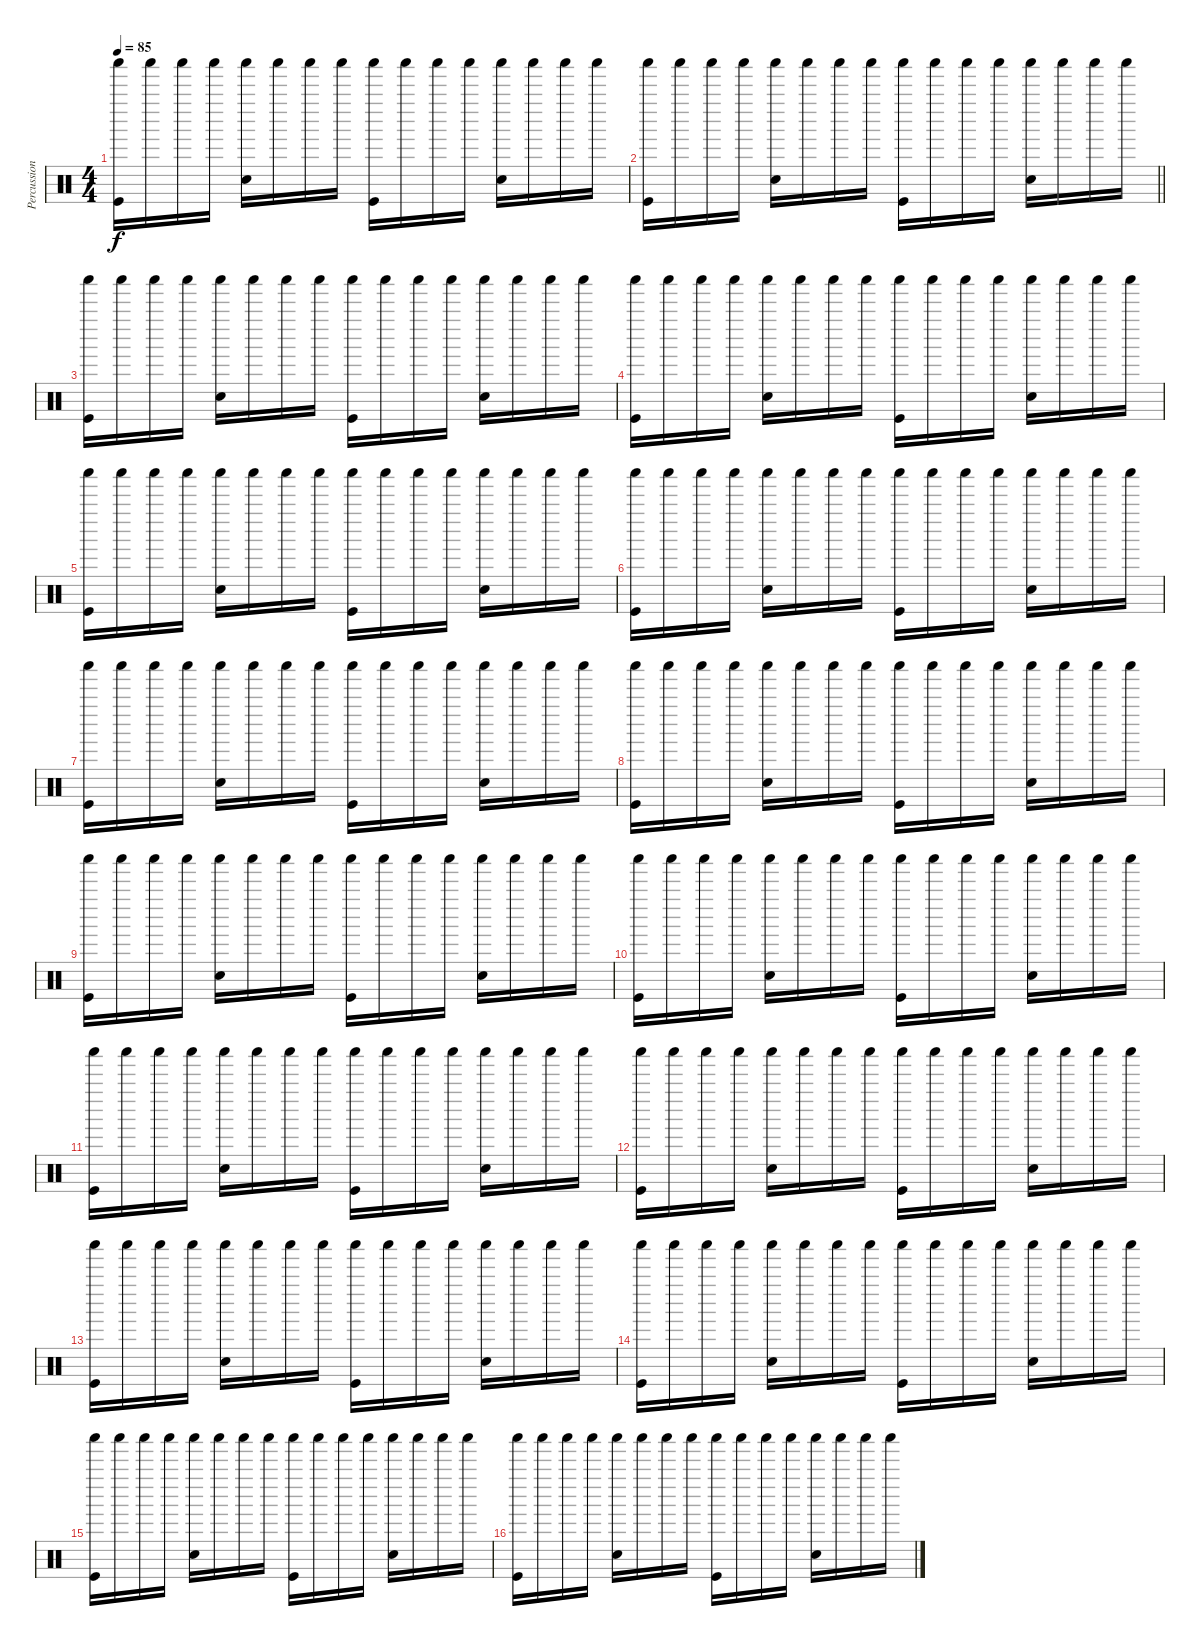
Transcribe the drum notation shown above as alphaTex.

\track ("Percussion" "Percussion") {instrument percussion}
\staff {score}
\articulation defaults
\ts (4 4)
\tempo 85
\clef neutral
\ks c
("Shaker (hit)" "Kick (hit)").16{dy f} "Shaker (hit)".16 "Shaker (hit)".16 "Shaker (hit)".16 ("Shaker (hit)" "Snare (hit) 2").16 "Shaker (hit)".16 "Shaker (hit)".16 "Shaker (hit)".16 ("Shaker (hit)" "Kick (hit)").16 "Shaker (hit)".16 "Shaker (hit)".16 "Shaker (hit)".16 ("Shaker (hit)" "Snare (hit) 2").16 "Shaker (hit)".16 "Shaker (hit)".16 "Shaker (hit)".16 |
\barLineRight lightlight
("Shaker (hit)" "Kick (hit)").16 "Shaker (hit)".16 "Shaker (hit)".16 "Shaker (hit)".16 ("Shaker (hit)" "Snare (hit) 2").16 "Shaker (hit)".16 "Shaker (hit)".16 "Shaker (hit)".16 ("Shaker (hit)" "Kick (hit)").16 "Shaker (hit)".16 "Shaker (hit)".16 "Shaker (hit)".16 ("Shaker (hit)" "Snare (hit) 2").16 "Shaker (hit)".16 "Shaker (hit)".16 "Shaker (hit)".16 |
("Shaker (hit)" "Kick (hit)").16 "Shaker (hit)".16 "Shaker (hit)".16 "Shaker (hit)".16 ("Shaker (hit)" "Snare (hit) 2").16 "Shaker (hit)".16 "Shaker (hit)".16 "Shaker (hit)".16 ("Shaker (hit)" "Kick (hit)").16 "Shaker (hit)".16 "Shaker (hit)".16 "Shaker (hit)".16 ("Shaker (hit)" "Snare (hit) 2").16 "Shaker (hit)".16 "Shaker (hit)".16 "Shaker (hit)".16 |
("Shaker (hit)" "Kick (hit)").16 "Shaker (hit)".16 "Shaker (hit)".16 "Shaker (hit)".16 ("Shaker (hit)" "Snare (hit) 2").16 "Shaker (hit)".16 "Shaker (hit)".16 "Shaker (hit)".16 ("Shaker (hit)" "Kick (hit)").16 "Shaker (hit)".16 "Shaker (hit)".16 "Shaker (hit)".16 ("Shaker (hit)" "Snare (hit) 2").16 "Shaker (hit)".16 "Shaker (hit)".16 "Shaker (hit)".16 |
("Shaker (hit)" "Kick (hit)").16 "Shaker (hit)".16 "Shaker (hit)".16 "Shaker (hit)".16 ("Shaker (hit)" "Snare (hit) 2").16 "Shaker (hit)".16 "Shaker (hit)".16 "Shaker (hit)".16 ("Shaker (hit)" "Kick (hit)").16 "Shaker (hit)".16 "Shaker (hit)".16 "Shaker (hit)".16 ("Shaker (hit)" "Snare (hit) 2").16 "Shaker (hit)".16 "Shaker (hit)".16 "Shaker (hit)".16 |
("Shaker (hit)" "Kick (hit)").16 "Shaker (hit)".16 "Shaker (hit)".16 "Shaker (hit)".16 ("Shaker (hit)" "Snare (hit) 2").16 "Shaker (hit)".16 "Shaker (hit)".16 "Shaker (hit)".16 ("Shaker (hit)" "Kick (hit)").16 "Shaker (hit)".16 "Shaker (hit)".16 "Shaker (hit)".16 ("Shaker (hit)" "Snare (hit) 2").16 "Shaker (hit)".16 "Shaker (hit)".16 "Shaker (hit)".16 |
("Shaker (hit)" "Kick (hit)").16 "Shaker (hit)".16 "Shaker (hit)".16 "Shaker (hit)".16 ("Shaker (hit)" "Snare (hit) 2").16 "Shaker (hit)".16 "Shaker (hit)".16 "Shaker (hit)".16 ("Shaker (hit)" "Kick (hit)").16 "Shaker (hit)".16 "Shaker (hit)".16 "Shaker (hit)".16 ("Shaker (hit)" "Snare (hit) 2").16 "Shaker (hit)".16 "Shaker (hit)".16 "Shaker (hit)".16 |
("Shaker (hit)" "Kick (hit)").16 "Shaker (hit)".16 "Shaker (hit)".16 "Shaker (hit)".16 ("Shaker (hit)" "Snare (hit) 2").16 "Shaker (hit)".16 "Shaker (hit)".16 "Shaker (hit)".16 ("Shaker (hit)" "Kick (hit)").16 "Shaker (hit)".16 "Shaker (hit)".16 "Shaker (hit)".16 ("Shaker (hit)" "Snare (hit) 2").16 "Shaker (hit)".16 "Shaker (hit)".16 "Shaker (hit)".16 |
("Shaker (hit)" "Kick (hit)").16 "Shaker (hit)".16 "Shaker (hit)".16 "Shaker (hit)".16 ("Shaker (hit)" "Snare (hit) 2").16 "Shaker (hit)".16 "Shaker (hit)".16 "Shaker (hit)".16 ("Shaker (hit)" "Kick (hit)").16 "Shaker (hit)".16 "Shaker (hit)".16 "Shaker (hit)".16 ("Shaker (hit)" "Snare (hit) 2").16 "Shaker (hit)".16 "Shaker (hit)".16 "Shaker (hit)".16 |
("Shaker (hit)" "Kick (hit)").16 "Shaker (hit)".16 "Shaker (hit)".16 "Shaker (hit)".16 ("Shaker (hit)" "Snare (hit) 2").16 "Shaker (hit)".16 "Shaker (hit)".16 "Shaker (hit)".16 ("Shaker (hit)" "Kick (hit)").16 "Shaker (hit)".16 "Shaker (hit)".16 "Shaker (hit)".16 ("Shaker (hit)" "Snare (hit) 2").16 "Shaker (hit)".16 "Shaker (hit)".16 "Shaker (hit)".16 |
("Shaker (hit)" "Kick (hit)").16 "Shaker (hit)".16 "Shaker (hit)".16 "Shaker (hit)".16 ("Shaker (hit)" "Snare (hit) 2").16 "Shaker (hit)".16 "Shaker (hit)".16 "Shaker (hit)".16 ("Shaker (hit)" "Kick (hit)").16 "Shaker (hit)".16 "Shaker (hit)".16 "Shaker (hit)".16 ("Shaker (hit)" "Snare (hit) 2").16 "Shaker (hit)".16 "Shaker (hit)".16 "Shaker (hit)".16 |
("Shaker (hit)" "Kick (hit)").16 "Shaker (hit)".16 "Shaker (hit)".16 "Shaker (hit)".16 ("Shaker (hit)" "Snare (hit) 2").16 "Shaker (hit)".16 "Shaker (hit)".16 "Shaker (hit)".16 ("Shaker (hit)" "Kick (hit)").16 "Shaker (hit)".16 "Shaker (hit)".16 "Shaker (hit)".16 ("Shaker (hit)" "Snare (hit) 2").16 "Shaker (hit)".16 "Shaker (hit)".16 "Shaker (hit)".16 |
("Shaker (hit)" "Kick (hit)").16 "Shaker (hit)".16 "Shaker (hit)".16 "Shaker (hit)".16 ("Shaker (hit)" "Snare (hit) 2").16 "Shaker (hit)".16 "Shaker (hit)".16 "Shaker (hit)".16 ("Shaker (hit)" "Kick (hit)").16 "Shaker (hit)".16 "Shaker (hit)".16 "Shaker (hit)".16 ("Shaker (hit)" "Snare (hit) 2").16 "Shaker (hit)".16 "Shaker (hit)".16 "Shaker (hit)".16 |
("Shaker (hit)" "Kick (hit)").16 "Shaker (hit)".16 "Shaker (hit)".16 "Shaker (hit)".16 ("Shaker (hit)" "Snare (hit) 2").16 "Shaker (hit)".16 "Shaker (hit)".16 "Shaker (hit)".16 ("Shaker (hit)" "Kick (hit)").16 "Shaker (hit)".16 "Shaker (hit)".16 "Shaker (hit)".16 ("Shaker (hit)" "Snare (hit) 2").16 "Shaker (hit)".16 "Shaker (hit)".16 "Shaker (hit)".16 |
("Shaker (hit)" "Kick (hit)").16 "Shaker (hit)".16 "Shaker (hit)".16 "Shaker (hit)".16 ("Shaker (hit)" "Snare (hit) 2").16 "Shaker (hit)".16 "Shaker (hit)".16 "Shaker (hit)".16 ("Shaker (hit)" "Kick (hit)").16 "Shaker (hit)".16 "Shaker (hit)".16 "Shaker (hit)".16 ("Shaker (hit)" "Snare (hit) 2").16 "Shaker (hit)".16 "Shaker (hit)".16 "Shaker (hit)".16 |
("Shaker (hit)" "Kick (hit)").16 "Shaker (hit)".16 "Shaker (hit)".16 "Shaker (hit)".16 ("Shaker (hit)" "Snare (hit) 2").16 "Shaker (hit)".16 "Shaker (hit)".16 "Shaker (hit)".16 ("Shaker (hit)" "Kick (hit)").16 "Shaker (hit)".16 "Shaker (hit)".16 "Shaker (hit)".16 ("Shaker (hit)" "Snare (hit) 2").16 "Shaker (hit)".16 "Shaker (hit)".16 "Shaker (hit)".16
